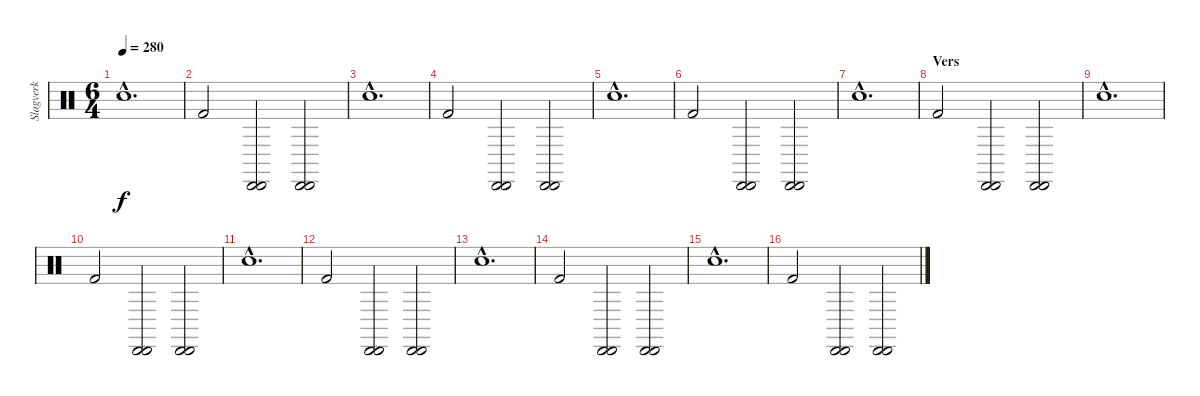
\track ("Slagverk" "Slagverk") {instrument percussion}
\staff {score}
\articulation defaults
\ts (6 4)
\tempo 280
\clef neutral
\ks c "Snare (hit) 2"{hac}.1{d dy f}
|
"Kick (hit) 2".2 ("Cabasa (hit)" "Cabasa (hit)").2 ("Cabasa (hit)" "Cabasa (hit)").2 |
"Snare (hit) 2"{hac}.1{d} |
"Kick (hit) 2".2 ("Cabasa (hit)" "Cabasa (hit)").2 ("Cabasa (hit)" "Cabasa (hit)").2 |
"Snare (hit) 2"{hac}.1{d} |
"Kick (hit) 2".2 ("Cabasa (hit)" "Cabasa (hit)").2 ("Cabasa (hit)" "Cabasa (hit)").2 |
"Snare (hit) 2"{hac}.1{d} |
\section ("" "Vers")
"Kick (hit) 2".2 ("Cabasa (hit)" "Cabasa (hit)").2 ("Cabasa (hit)" "Cabasa (hit)").2 |
"Snare (hit) 2"{hac}.1{d} |
"Kick (hit) 2".2 ("Cabasa (hit)" "Cabasa (hit)").2 ("Cabasa (hit)" "Cabasa (hit)").2 |
"Snare (hit) 2"{hac}.1{d} |
"Kick (hit) 2".2 ("Cabasa (hit)" "Cabasa (hit)").2 ("Cabasa (hit)" "Cabasa (hit)").2 |
"Snare (hit) 2"{hac}.1{d} |
"Kick (hit) 2".2 ("Cabasa (hit)" "Cabasa (hit)").2 ("Cabasa (hit)" "Cabasa (hit)").2 |
"Snare (hit) 2"{hac}.1{d} |
"Kick (hit) 2".2 ("Cabasa (hit)" "Cabasa (hit)").2 ("Cabasa (hit)" "Cabasa (hit)").2
